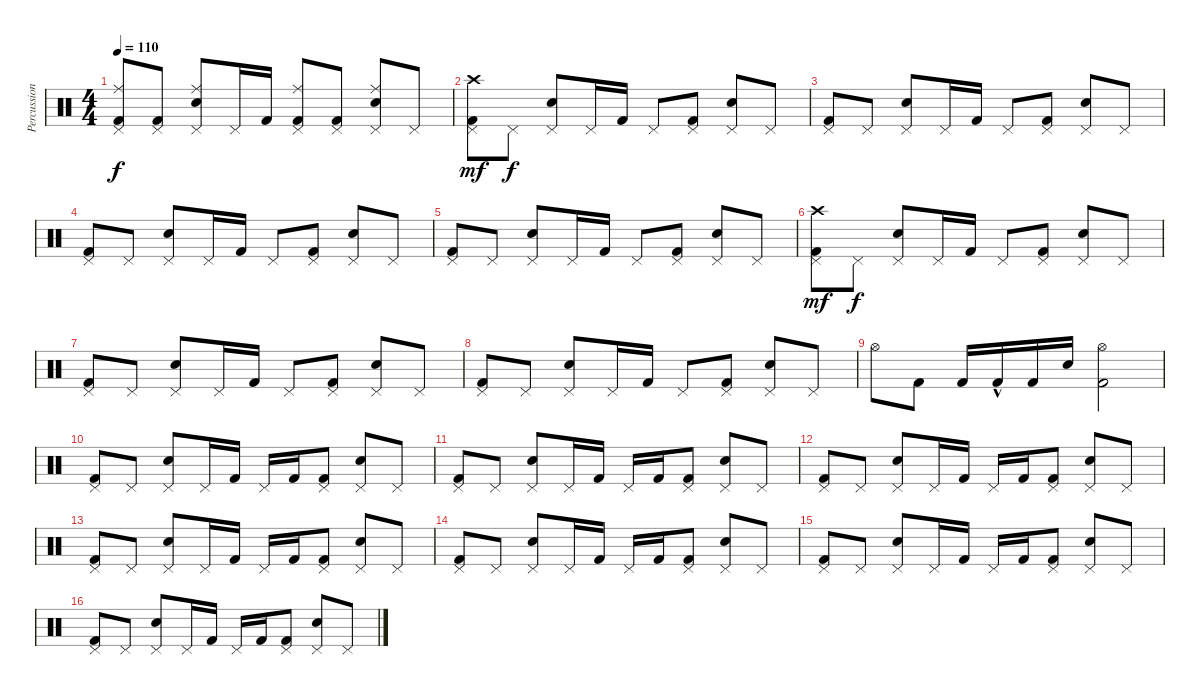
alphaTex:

\track ("Percussion" "Percussion") {instrument percussion}
\staff {score}
\articulation defaults
\ts (4 4)
\tempo 110
\clef neutral
\ks c
("Pedal Hi-Hat (hit)" "Kick (hit) 2" "Ride (middle)").8{dy f} ("Pedal Hi-Hat (hit)" "Kick (hit) 2").8 ("Pedal Hi-Hat (hit)" "Electric Snare (hit)" "Ride (middle)").8 "Pedal Hi-Hat (hit)".16 "Kick (hit) 2".16 ("Pedal Hi-Hat (hit)" "Kick (hit) 2" "Ride (middle)").8 ("Pedal Hi-Hat (hit)" "Kick (hit) 2").8 ("Pedal Hi-Hat (hit)" "Electric Snare (hit)" "Ride (middle)").8 "Pedal Hi-Hat (hit)".8 |
("Pedal Hi-Hat (hit)" "Kick (hit) 2" "Crash high (hit)").8{dy mf} "Pedal Hi-Hat (hit)".8{dy f} ("Pedal Hi-Hat (hit)" "Electric Snare (hit)").8 "Pedal Hi-Hat (hit)".16 "Kick (hit) 2".16 "Pedal Hi-Hat (hit)".8 ("Pedal Hi-Hat (hit)" "Kick (hit) 2").8 ("Pedal Hi-Hat (hit)" "Electric Snare (hit)").8 "Pedal Hi-Hat (hit)".8 |
("Pedal Hi-Hat (hit)" "Kick (hit) 2").8 "Pedal Hi-Hat (hit)".8 ("Pedal Hi-Hat (hit)" "Electric Snare (hit)").8 "Pedal Hi-Hat (hit)".16 "Kick (hit) 2".16 "Pedal Hi-Hat (hit)".8 ("Pedal Hi-Hat (hit)" "Kick (hit) 2").8 ("Pedal Hi-Hat (hit)" "Electric Snare (hit)").8 "Pedal Hi-Hat (hit)".8 |
("Pedal Hi-Hat (hit)" "Kick (hit) 2").8 "Pedal Hi-Hat (hit)".8 ("Pedal Hi-Hat (hit)" "Electric Snare (hit)").8 "Pedal Hi-Hat (hit)".16 "Kick (hit) 2".16 "Pedal Hi-Hat (hit)".8 ("Pedal Hi-Hat (hit)" "Kick (hit) 2").8 ("Pedal Hi-Hat (hit)" "Electric Snare (hit)").8 "Pedal Hi-Hat (hit)".8 |
("Pedal Hi-Hat (hit)" "Kick (hit) 2").8 "Pedal Hi-Hat (hit)".8 ("Pedal Hi-Hat (hit)" "Electric Snare (hit)").8 "Pedal Hi-Hat (hit)".16 "Kick (hit) 2".16 "Pedal Hi-Hat (hit)".8 ("Pedal Hi-Hat (hit)" "Kick (hit) 2").8 ("Pedal Hi-Hat (hit)" "Electric Snare (hit)").8 "Pedal Hi-Hat (hit)".8 |
("Pedal Hi-Hat (hit)" "Kick (hit) 2" "Crash high (hit)").8{dy mf} "Pedal Hi-Hat (hit)".8{dy f} ("Pedal Hi-Hat (hit)" "Electric Snare (hit)").8 "Pedal Hi-Hat (hit)".16 "Kick (hit) 2".16 "Pedal Hi-Hat (hit)".8 ("Pedal Hi-Hat (hit)" "Kick (hit) 2").8 ("Pedal Hi-Hat (hit)" "Electric Snare (hit)").8 "Pedal Hi-Hat (hit)".8 |
("Pedal Hi-Hat (hit)" "Kick (hit) 2").8 "Pedal Hi-Hat (hit)".8 ("Pedal Hi-Hat (hit)" "Electric Snare (hit)").8 "Pedal Hi-Hat (hit)".16 "Kick (hit) 2".16 "Pedal Hi-Hat (hit)".8 ("Pedal Hi-Hat (hit)" "Kick (hit) 2").8 ("Pedal Hi-Hat (hit)" "Electric Snare (hit)").8 "Pedal Hi-Hat (hit)".8 |
("Pedal Hi-Hat (hit)" "Kick (hit) 2").8 "Pedal Hi-Hat (hit)".8 ("Pedal Hi-Hat (hit)" "Electric Snare (hit)").8 "Pedal Hi-Hat (hit)".16 "Kick (hit) 2".16 "Pedal Hi-Hat (hit)".8 ("Pedal Hi-Hat (hit)" "Kick (hit) 2").8 ("Pedal Hi-Hat (hit)" "Electric Snare (hit)").8 "Pedal Hi-Hat (hit)".8 |
"Hi-Hat (open)".8 "Kick (hit) 2".8 "Kick (hit) 2".16 "Kick (hit) 2"{hac}.16 "Kick (hit) 2".16 "Electric Snare (hit)".16 ("Hi-Hat (open)" "Kick (hit) 2").2 |
("Pedal Hi-Hat (hit)" "Kick (hit) 2").8 "Pedal Hi-Hat (hit)".8 ("Pedal Hi-Hat (hit)" "Electric Snare (hit)").8 "Pedal Hi-Hat (hit)".16 "Kick (hit) 2".16 "Pedal Hi-Hat (hit)".16 "Kick (hit) 2".16 ("Pedal Hi-Hat (hit)" "Kick (hit) 2").8 ("Pedal Hi-Hat (hit)" "Electric Snare (hit)").8 "Pedal Hi-Hat (hit)".8 |
("Pedal Hi-Hat (hit)" "Kick (hit) 2").8 "Pedal Hi-Hat (hit)".8 ("Pedal Hi-Hat (hit)" "Electric Snare (hit)").8 "Pedal Hi-Hat (hit)".16 "Kick (hit) 2".16 "Pedal Hi-Hat (hit)".16 "Kick (hit) 2".16 ("Pedal Hi-Hat (hit)" "Kick (hit) 2").8 ("Pedal Hi-Hat (hit)" "Electric Snare (hit)").8 "Pedal Hi-Hat (hit)".8 |
("Pedal Hi-Hat (hit)" "Kick (hit) 2").8 "Pedal Hi-Hat (hit)".8 ("Pedal Hi-Hat (hit)" "Electric Snare (hit)").8 "Pedal Hi-Hat (hit)".16 "Kick (hit) 2".16 "Pedal Hi-Hat (hit)".16 "Kick (hit) 2".16 ("Pedal Hi-Hat (hit)" "Kick (hit) 2").8 ("Pedal Hi-Hat (hit)" "Electric Snare (hit)").8 "Pedal Hi-Hat (hit)".8 |
("Pedal Hi-Hat (hit)" "Kick (hit) 2").8 "Pedal Hi-Hat (hit)".8 ("Pedal Hi-Hat (hit)" "Electric Snare (hit)").8 "Pedal Hi-Hat (hit)".16 "Kick (hit) 2".16 "Pedal Hi-Hat (hit)".16 "Kick (hit) 2".16 ("Pedal Hi-Hat (hit)" "Kick (hit) 2").8 ("Pedal Hi-Hat (hit)" "Electric Snare (hit)").8 "Pedal Hi-Hat (hit)".8 |
("Pedal Hi-Hat (hit)" "Kick (hit) 2").8 "Pedal Hi-Hat (hit)".8 ("Pedal Hi-Hat (hit)" "Electric Snare (hit)").8 "Pedal Hi-Hat (hit)".16 "Kick (hit) 2".16 "Pedal Hi-Hat (hit)".16 "Kick (hit) 2".16 ("Pedal Hi-Hat (hit)" "Kick (hit) 2").8 ("Pedal Hi-Hat (hit)" "Electric Snare (hit)").8 "Pedal Hi-Hat (hit)".8 |
("Pedal Hi-Hat (hit)" "Kick (hit) 2").8 "Pedal Hi-Hat (hit)".8 ("Pedal Hi-Hat (hit)" "Electric Snare (hit)").8 "Pedal Hi-Hat (hit)".16 "Kick (hit) 2".16 "Pedal Hi-Hat (hit)".16 "Kick (hit) 2".16 ("Pedal Hi-Hat (hit)" "Kick (hit) 2").8 ("Pedal Hi-Hat (hit)" "Electric Snare (hit)").8 "Pedal Hi-Hat (hit)".8 |
("Pedal Hi-Hat (hit)" "Kick (hit) 2").8 "Pedal Hi-Hat (hit)".8 ("Pedal Hi-Hat (hit)" "Electric Snare (hit)").8 "Pedal Hi-Hat (hit)".16 "Kick (hit) 2".16 "Pedal Hi-Hat (hit)".16 "Kick (hit) 2".16 ("Pedal Hi-Hat (hit)" "Kick (hit) 2").8 ("Pedal Hi-Hat (hit)" "Electric Snare (hit)").8 "Pedal Hi-Hat (hit)".8
